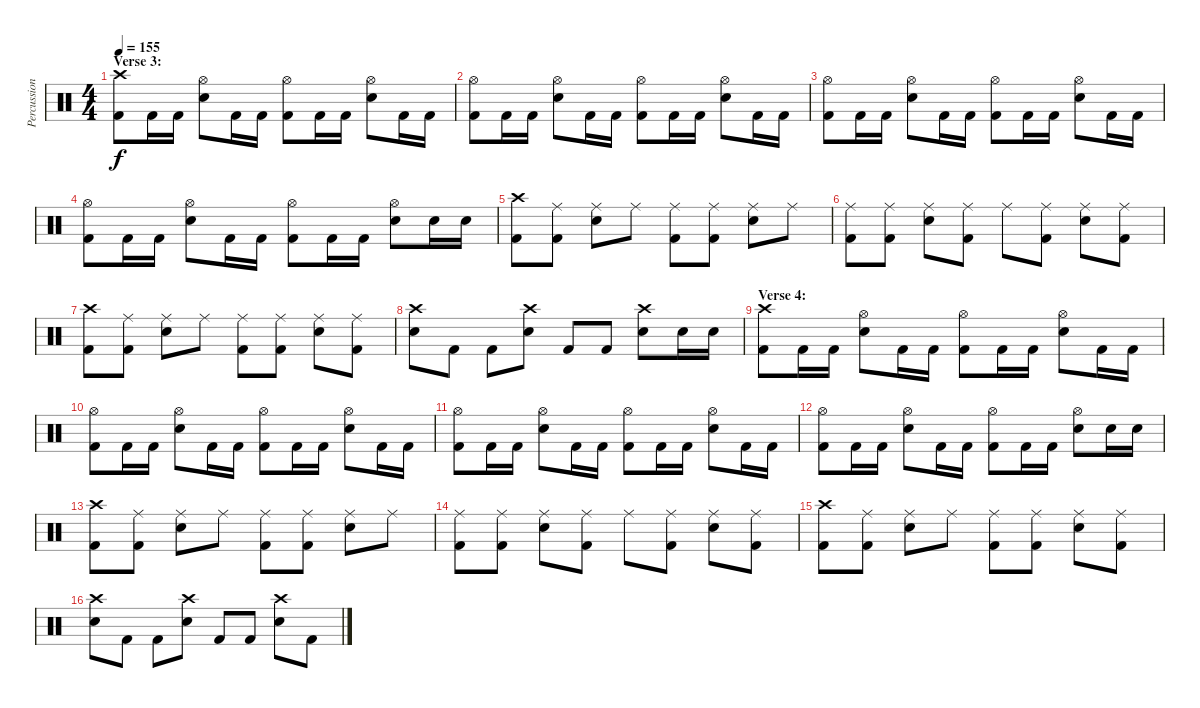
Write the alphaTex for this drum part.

\track ("Percussion" "Percussion") {instrument percussion}
\staff {score}
\articulation defaults
\ts (4 4)
\section ("" "Verse 3:")
\tempo 155
\clef neutral
\ks c
("Crash high (hit)" "Kick (hit) 2").8{dy f} "Kick (hit) 2".16 "Kick (hit) 2".16 ("Hi-Hat (open)" "Electric Snare (hit)").8 "Kick (hit) 2".16 "Kick (hit) 2".16 ("Hi-Hat (open)" "Kick (hit) 2").8 "Kick (hit) 2".16 "Kick (hit) 2".16 ("Hi-Hat (open)" "Electric Snare (hit)").8 "Kick (hit) 2".16 "Kick (hit) 2".16 |
("Hi-Hat (open)" "Kick (hit) 2").8 "Kick (hit) 2".16 "Kick (hit) 2".16 ("Hi-Hat (open)" "Electric Snare (hit)").8 "Kick (hit) 2".16 "Kick (hit) 2".16 ("Hi-Hat (open)" "Kick (hit) 2").8 "Kick (hit) 2".16 "Kick (hit) 2".16 ("Hi-Hat (open)" "Electric Snare (hit)").8 "Kick (hit) 2".16 "Kick (hit) 2".16 |
("Hi-Hat (open)" "Kick (hit) 2").8 "Kick (hit) 2".16 "Kick (hit) 2".16 ("Hi-Hat (open)" "Electric Snare (hit)").8 "Kick (hit) 2".16 "Kick (hit) 2".16 ("Hi-Hat (open)" "Kick (hit) 2").8 "Kick (hit) 2".16 "Kick (hit) 2".16 ("Hi-Hat (open)" "Electric Snare (hit)").8 "Kick (hit) 2".16 "Kick (hit) 2".16 |
("Hi-Hat (open)" "Kick (hit) 2").8 "Kick (hit) 2".16 "Kick (hit) 2".16 ("Hi-Hat (open)" "Electric Snare (hit)").8 "Kick (hit) 2".16 "Kick (hit) 2".16 ("Hi-Hat (open)" "Kick (hit) 2").8 "Kick (hit) 2".16 "Kick (hit) 2".16 ("Hi-Hat (open)" "Electric Snare (hit)").8 "Electric Snare (hit)".16 "Electric Snare (hit)".16 |
("Crash high (hit)" "Kick (hit) 2").8 ("Ride (middle)" "Kick (hit) 2").8 ("Ride (middle)" "Electric Snare (hit)").8 "Ride (middle)".8 ("Ride (middle)" "Kick (hit) 2").8 ("Ride (middle)" "Kick (hit) 2").8 ("Ride (middle)" "Electric Snare (hit)").8 "Ride (middle)".8 |
("Ride (middle)" "Kick (hit) 2").8 ("Ride (middle)" "Kick (hit) 2").8 ("Ride (middle)" "Electric Snare (hit)").8 ("Ride (middle)" "Kick (hit) 2").8 "Ride (middle)".8 ("Ride (middle)" "Kick (hit) 2").8 ("Ride (middle)" "Electric Snare (hit)").8 ("Ride (middle)" "Kick (hit) 2").8 |
("Crash high (hit)" "Kick (hit) 2").8 ("Ride (middle)" "Kick (hit) 2").8 ("Ride (middle)" "Electric Snare (hit)").8 "Ride (middle)".8 ("Ride (middle)" "Kick (hit) 2").8 ("Ride (middle)" "Kick (hit) 2").8 ("Ride (middle)" "Electric Snare (hit)").8 ("Ride (middle)" "Kick (hit) 2").8 |
("Crash high (hit)" "Electric Snare (hit)").8 "Kick (hit) 2".8 "Kick (hit) 2".8 ("Crash high (hit)" "Electric Snare (hit)").8 "Kick (hit) 2".8 "Kick (hit) 2".8 ("Crash high (hit)" "Electric Snare (hit)").8 "Electric Snare (hit)".16 "Electric Snare (hit)".16 |
\section ("" "Verse 4:")
("Crash high (hit)" "Kick (hit) 2").8 "Kick (hit) 2".16 "Kick (hit) 2".16 ("Hi-Hat (open)" "Electric Snare (hit)").8 "Kick (hit) 2".16 "Kick (hit) 2".16 ("Hi-Hat (open)" "Kick (hit) 2").8 "Kick (hit) 2".16 "Kick (hit) 2".16 ("Hi-Hat (open)" "Electric Snare (hit)").8 "Kick (hit) 2".16 "Kick (hit) 2".16 |
("Hi-Hat (open)" "Kick (hit) 2").8 "Kick (hit) 2".16 "Kick (hit) 2".16 ("Hi-Hat (open)" "Electric Snare (hit)").8 "Kick (hit) 2".16 "Kick (hit) 2".16 ("Hi-Hat (open)" "Kick (hit) 2").8 "Kick (hit) 2".16 "Kick (hit) 2".16 ("Hi-Hat (open)" "Electric Snare (hit)").8 "Kick (hit) 2".16 "Kick (hit) 2".16 |
("Hi-Hat (open)" "Kick (hit) 2").8 "Kick (hit) 2".16 "Kick (hit) 2".16 ("Hi-Hat (open)" "Electric Snare (hit)").8 "Kick (hit) 2".16 "Kick (hit) 2".16 ("Hi-Hat (open)" "Kick (hit) 2").8 "Kick (hit) 2".16 "Kick (hit) 2".16 ("Hi-Hat (open)" "Electric Snare (hit)").8 "Kick (hit) 2".16 "Kick (hit) 2".16 |
("Hi-Hat (open)" "Kick (hit) 2").8 "Kick (hit) 2".16 "Kick (hit) 2".16 ("Hi-Hat (open)" "Electric Snare (hit)").8 "Kick (hit) 2".16 "Kick (hit) 2".16 ("Hi-Hat (open)" "Kick (hit) 2").8 "Kick (hit) 2".16 "Kick (hit) 2".16 ("Hi-Hat (open)" "Electric Snare (hit)").8 "Electric Snare (hit)".16 "Electric Snare (hit)".16 |
("Crash high (hit)" "Kick (hit) 2").8 ("Ride (middle)" "Kick (hit) 2").8 ("Ride (middle)" "Electric Snare (hit)").8 "Ride (middle)".8 ("Ride (middle)" "Kick (hit) 2").8 ("Ride (middle)" "Kick (hit) 2").8 ("Ride (middle)" "Electric Snare (hit)").8 "Ride (middle)".8 |
("Ride (middle)" "Kick (hit) 2").8 ("Ride (middle)" "Kick (hit) 2").8 ("Ride (middle)" "Electric Snare (hit)").8 ("Ride (middle)" "Kick (hit) 2").8 "Ride (middle)".8 ("Ride (middle)" "Kick (hit) 2").8 ("Ride (middle)" "Electric Snare (hit)").8 ("Ride (middle)" "Kick (hit) 2").8 |
("Crash high (hit)" "Kick (hit) 2").8 ("Ride (middle)" "Kick (hit) 2").8 ("Ride (middle)" "Electric Snare (hit)").8 "Ride (middle)".8 ("Ride (middle)" "Kick (hit) 2").8 ("Ride (middle)" "Kick (hit) 2").8 ("Ride (middle)" "Electric Snare (hit)").8 ("Ride (middle)" "Kick (hit) 2").8 |
("Crash high (hit)" "Electric Snare (hit)").8 "Kick (hit) 2".8 "Kick (hit) 2".8 ("Crash high (hit)" "Electric Snare (hit)").8 "Kick (hit) 2".8 "Kick (hit) 2".8 ("Crash high (hit)" "Electric Snare (hit)").8 "Kick (hit) 2".8
